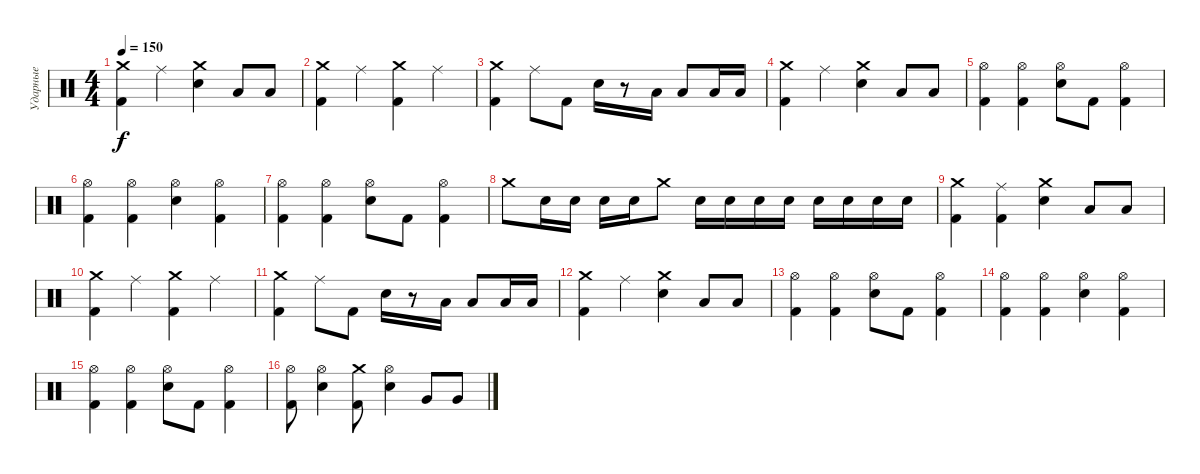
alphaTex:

\track ("Ударные" "Ударные") {instrument percussion}
\staff {score}
\articulation defaults
\ts (4 4)
\tempo 150
\clef neutral
\ks c
("Crash medium (hit)" "Kick (hit) 2").4{dy f} "Ride (middle)".4 ("Crash medium (hit)" "Electric Snare (hit)").4 "Low Floor Tom (hit)".8 "Low Floor Tom (hit)".8 |
("Crash medium (hit)" "Kick (hit) 2").4 "Ride (middle)".4 ("Crash medium (hit)" "Kick (hit) 2").4 "Ride (middle)".4 |
("Crash medium (hit)" "Kick (hit) 2").4 "Ride (middle)".8 "Kick (hit) 2".8 "Electric Snare (hit)".16 r.8 "Low Floor Tom (hit)".16 "Low Floor Tom (hit)".8 "Low Floor Tom (hit)".16 "Low Floor Tom (hit)".16 |
("Crash medium (hit)" "Kick (hit) 2").4 "Ride (middle)".4 ("Crash medium (hit)" "Electric Snare (hit)").4 "Low Floor Tom (hit)".8 "Low Floor Tom (hit)".8 |
("Hi-Hat (open)" "Kick (hit) 2").4 ("Hi-Hat (open)" "Kick (hit) 2").4 ("Hi-Hat (open)" "Electric Snare (hit)").8 "Kick (hit) 2".8 ("Hi-Hat (open)" "Kick (hit) 2").4 |
("Hi-Hat (open)" "Kick (hit) 2").4 ("Hi-Hat (open)" "Kick (hit) 2").4 ("Hi-Hat (open)" "Electric Snare (hit)").4 ("Hi-Hat (open)" "Kick (hit) 2").4 |
("Hi-Hat (open)" "Kick (hit) 2").4 ("Hi-Hat (open)" "Kick (hit) 2").4 ("Hi-Hat (open)" "Electric Snare (hit)").8 "Kick (hit) 2".8 ("Hi-Hat (open)" "Kick (hit) 2").4 |
"Crash medium (hit)".8 "Electric Snare (hit)".16 "Electric Snare (hit)".16 "Electric Snare (hit)".16 "Electric Snare (hit)".16 "Crash medium (hit)".8 "Electric Snare (hit)".16 "Electric Snare (hit)".16 "Electric Snare (hit)".16 "Electric Snare (hit)".16 "Electric Snare (hit)".16 "Electric Snare (hit)".16 "Electric Snare (hit)".16 "Electric Snare (hit)".16 |
("Crash medium (hit)" "Kick (hit) 2").4 ("Ride (middle)" "Kick (hit) 2").4 ("Crash medium (hit)" "Electric Snare (hit)").4 "Low Floor Tom (hit)".8 "Low Floor Tom (hit)".8 |
("Crash medium (hit)" "Kick (hit) 2").4 "Ride (middle)".4 ("Crash medium (hit)" "Kick (hit) 2").4 "Ride (middle)".4 |
("Crash medium (hit)" "Kick (hit) 2").4 "Ride (middle)".8 "Kick (hit) 2".8 "Electric Snare (hit)".16 r.8 "Low Floor Tom (hit)".16 "Low Floor Tom (hit)".8 "Low Floor Tom (hit)".16 "Low Floor Tom (hit)".16 |
("Crash medium (hit)" "Kick (hit) 2").4 "Ride (middle)".4 ("Crash medium (hit)" "Electric Snare (hit)").4 "Low Floor Tom (hit)".8 "Low Floor Tom (hit)".8 |
("Hi-Hat (open)" "Kick (hit) 2").4 ("Hi-Hat (open)" "Kick (hit) 2").4 ("Hi-Hat (open)" "Electric Snare (hit)").8 "Kick (hit) 2".8 ("Hi-Hat (open)" "Kick (hit) 2").4 |
("Hi-Hat (open)" "Kick (hit) 2").4 ("Hi-Hat (open)" "Kick (hit) 2").4 ("Hi-Hat (open)" "Electric Snare (hit)").4 ("Hi-Hat (open)" "Kick (hit) 2").4 |
("Hi-Hat (open)" "Kick (hit) 2").4 ("Hi-Hat (open)" "Kick (hit) 2").4 ("Hi-Hat (open)" "Electric Snare (hit)").8 "Kick (hit) 2".8 ("Hi-Hat (open)" "Kick (hit) 2").4 |
("Hi-Hat (open)" "Kick (hit) 2").8 ("Hi-Hat (open)" "Electric Snare (hit)").4 ("Crash medium (hit)" "Kick (hit) 2").8 ("Hi-Hat (open)" "Electric Snare (hit)").4 "Very Low Tom (hit)".8 "Very Low Tom (hit)".8
